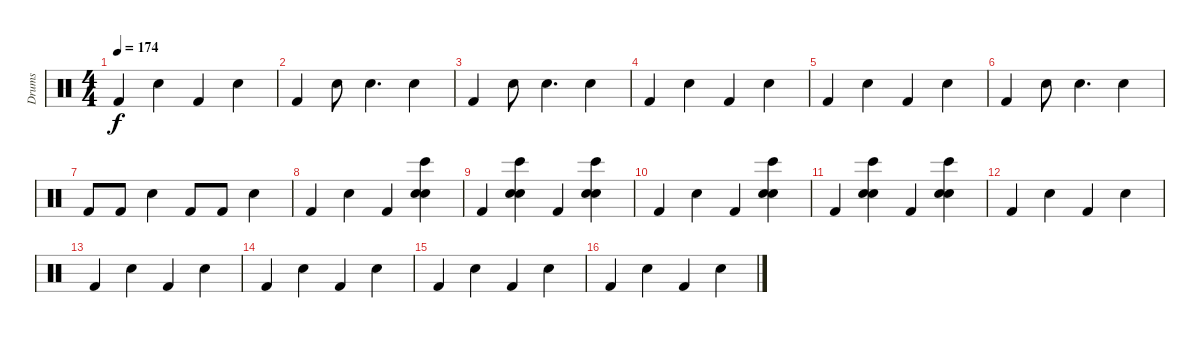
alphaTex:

\track ("Drums" "Drums") {instrument percussion}
\staff {score}
\articulation defaults
\ts (4 4)
\tempo 174
\clef neutral
\ks c "Kick (hit) 2".4{dy f} "Electric Snare (hit)".4 "Kick (hit) 2".4 "Electric Snare (hit)".4
|
"Kick (hit) 2".4 "Electric Snare (hit)".8 "Electric Snare (hit)".4{d} "Electric Snare (hit)".4 |
"Kick (hit) 2".4 "Electric Snare (hit)".8 "Electric Snare (hit)".4{d} "Electric Snare (hit)".4 |
"Kick (hit) 2".4 "Electric Snare (hit)".4 "Kick (hit) 2".4 "Electric Snare (hit)".4 |
"Kick (hit) 2".4 "Electric Snare (hit)".4 "Kick (hit) 2".4 "Electric Snare (hit)".4 |
"Kick (hit) 2".4 "Electric Snare (hit)".8 "Electric Snare (hit)".4{d} "Electric Snare (hit)".4 |
"Kick (hit) 2".8 "Kick (hit) 2".8 "Electric Snare (hit)".4 "Kick (hit) 2".8 "Kick (hit) 2".8 "Electric Snare (hit)".4 |
"Kick (hit) 2".4 "Electric Snare (hit)".4 "Kick (hit) 2".4 ("Electric Snare (hit)" "Hand Clap (hit)" "Bongo High (hit)").4 |
"Kick (hit) 2".4 ("Electric Snare (hit)" "Hand Clap (hit)" "Bongo High (hit)").4 "Kick (hit) 2".4 ("Electric Snare (hit)" "Hand Clap (hit)" "Bongo High (hit)").4 |
"Kick (hit) 2".4 "Electric Snare (hit)".4 "Kick (hit) 2".4 ("Electric Snare (hit)" "Hand Clap (hit)" "Bongo High (hit)").4 |
"Kick (hit) 2".4 ("Electric Snare (hit)" "Hand Clap (hit)" "Bongo High (hit)").4 "Kick (hit) 2".4 ("Electric Snare (hit)" "Hand Clap (hit)" "Bongo High (hit)").4 |
"Kick (hit) 2".4 "Electric Snare (hit)".4 "Kick (hit) 2".4 "Electric Snare (hit)".4 |
"Kick (hit) 2".4 "Electric Snare (hit)".4 "Kick (hit) 2".4 "Electric Snare (hit)".4 |
"Kick (hit) 2".4 "Electric Snare (hit)".4 "Kick (hit) 2".4 "Electric Snare (hit)".4 |
"Kick (hit) 2".4 "Electric Snare (hit)".4 "Kick (hit) 2".4 "Electric Snare (hit)".4 |
"Kick (hit) 2".4 "Electric Snare (hit)".4 "Kick (hit) 2".4 "Electric Snare (hit)".4
